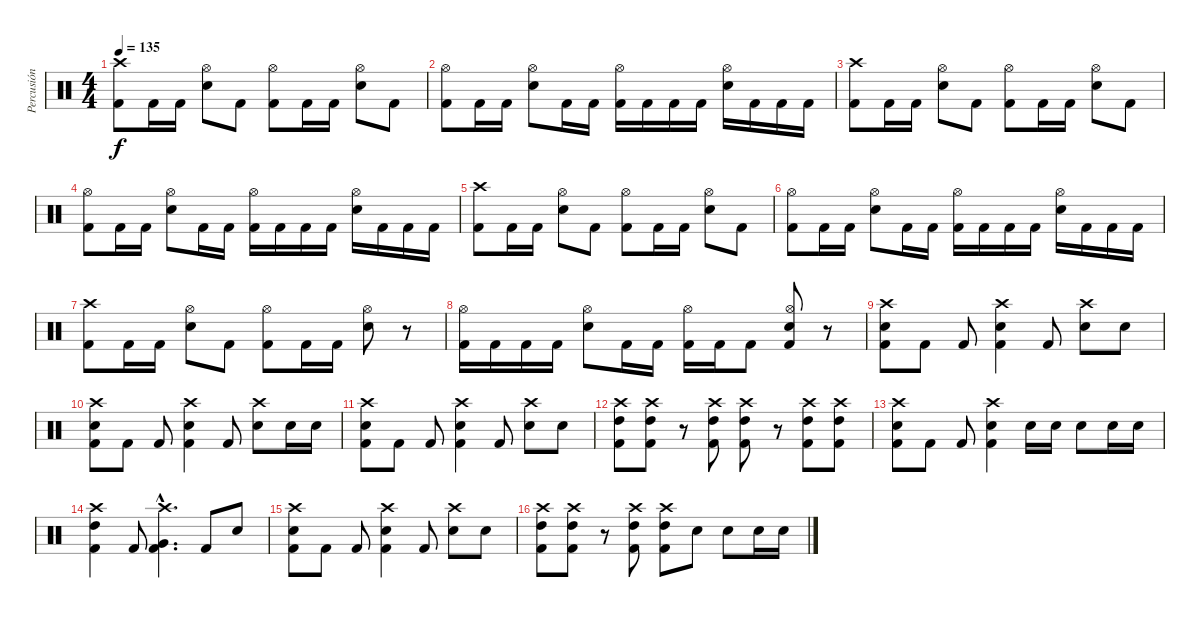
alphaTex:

\track ("Percusión" "Percusión") {instrument percussion}
\staff {score}
\articulation defaults
\ts (4 4)
\tempo 135
\clef neutral
\ks c
("Crash high (hit)" "Kick (hit) 2").8{dy f} "Kick (hit) 2".16 "Kick (hit) 2".16 ("Hi-Hat (open)" "Electric Snare (hit)").8 "Kick (hit) 2".8 ("Hi-Hat (open)" "Kick (hit) 2").8 "Kick (hit) 2".16 "Kick (hit) 2".16 ("Hi-Hat (open)" "Electric Snare (hit)").8 "Kick (hit) 2".8 |
("Hi-Hat (open)" "Kick (hit) 2").8 "Kick (hit) 2".16 "Kick (hit) 2".16 ("Hi-Hat (open)" "Electric Snare (hit)").8 "Kick (hit) 2".16 "Kick (hit) 2".16 ("Hi-Hat (open)" "Kick (hit) 2").16 "Kick (hit) 2".16 "Kick (hit) 2".16 "Kick (hit) 2".16 ("Hi-Hat (open)" "Electric Snare (hit)").16 "Kick (hit) 2".16 "Kick (hit) 2".16 "Kick (hit) 2".16 |
("Crash high (hit)" "Kick (hit) 2").8 "Kick (hit) 2".16 "Kick (hit) 2".16 ("Hi-Hat (open)" "Electric Snare (hit)").8 "Kick (hit) 2".8 ("Hi-Hat (open)" "Kick (hit) 2").8 "Kick (hit) 2".16 "Kick (hit) 2".16 ("Hi-Hat (open)" "Electric Snare (hit)").8 "Kick (hit) 2".8 |
("Hi-Hat (open)" "Kick (hit) 2").8 "Kick (hit) 2".16 "Kick (hit) 2".16 ("Hi-Hat (open)" "Electric Snare (hit)").8 "Kick (hit) 2".16 "Kick (hit) 2".16 ("Hi-Hat (open)" "Kick (hit) 2").16 "Kick (hit) 2".16 "Kick (hit) 2".16 "Kick (hit) 2".16 ("Hi-Hat (open)" "Electric Snare (hit)").16 "Kick (hit) 2".16 "Kick (hit) 2".16 "Kick (hit) 2".16 |
("Crash high (hit)" "Kick (hit) 2").8 "Kick (hit) 2".16 "Kick (hit) 2".16 ("Hi-Hat (open)" "Electric Snare (hit)").8 "Kick (hit) 2".8 ("Hi-Hat (open)" "Kick (hit) 2").8 "Kick (hit) 2".16 "Kick (hit) 2".16 ("Hi-Hat (open)" "Electric Snare (hit)").8 "Kick (hit) 2".8 |
("Hi-Hat (open)" "Kick (hit) 2").8 "Kick (hit) 2".16 "Kick (hit) 2".16 ("Hi-Hat (open)" "Electric Snare (hit)").8 "Kick (hit) 2".16 "Kick (hit) 2".16 ("Hi-Hat (open)" "Kick (hit) 2").16 "Kick (hit) 2".16 "Kick (hit) 2".16 "Kick (hit) 2".16 ("Hi-Hat (open)" "Electric Snare (hit)").16 "Kick (hit) 2".16 "Kick (hit) 2".16 "Kick (hit) 2".16 |
("Crash high (hit)" "Kick (hit) 2").8 "Kick (hit) 2".16 "Kick (hit) 2".16 ("Hi-Hat (open)" "Electric Snare (hit)").8 "Kick (hit) 2".8 ("Hi-Hat (open)" "Kick (hit) 2").8 "Kick (hit) 2".16 "Kick (hit) 2".16 ("Hi-Hat (open)" "Electric Snare (hit)").8 r.8 |
("Hi-Hat (open)" "Kick (hit) 2").16 "Kick (hit) 2".16 "Kick (hit) 2".16 "Kick (hit) 2".16 ("Hi-Hat (open)" "Electric Snare (hit)").8 "Kick (hit) 2".16 "Kick (hit) 2".16 ("Hi-Hat (open)" "Kick (hit) 2").16 "Kick (hit) 2".16 "Kick (hit) 2".8 ("Hi-Hat (open)" "Electric Snare (hit)" "Kick (hit) 2").8 r.8 |
("Crash high (hit)" "Electric Snare (hit)" "Kick (hit) 2").8 "Kick (hit) 2".8 "Kick (hit) 2".8 ("Crash high (hit)" "Electric Snare (hit)" "Kick (hit) 2").4 "Kick (hit) 2".8 ("Crash high (hit)" "Electric Snare (hit)").8 "Electric Snare (hit)".8 |
("Crash high (hit)" "Electric Snare (hit)" "Kick (hit) 2").8 "Kick (hit) 2".8 "Kick (hit) 2".8 ("Crash high (hit)" "Electric Snare (hit)" "Kick (hit) 2").4 "Kick (hit) 2".8 ("Crash high (hit)" "Electric Snare (hit)").8 "Electric Snare (hit)".16 "Electric Snare (hit)".16 |
("Crash high (hit)" "Electric Snare (hit)" "Kick (hit) 2").8 "Kick (hit) 2".8 "Kick (hit) 2".8 ("Crash high (hit)" "Electric Snare (hit)" "Kick (hit) 2").4 "Kick (hit) 2".8 ("Crash high (hit)" "Electric Snare (hit)").8 "Electric Snare (hit)".8 |
("Crash high (hit)" "High Tom (hit)" "Kick (hit) 2").8 ("Crash high (hit)" "High Tom (hit)" "Kick (hit) 2").8 r.8 ("Crash high (hit)" "High Tom (hit)" "Kick (hit) 2").8 ("Crash high (hit)" "High Tom (hit)" "Kick (hit) 2").8 r.8 ("Crash high (hit)" "High Tom (hit)" "Kick (hit) 2").8 ("Crash high (hit)" "High Tom (hit)" "Kick (hit) 2").8 |
("Crash high (hit)" "Electric Snare (hit)" "Kick (hit) 2").8 "Kick (hit) 2".8 "Kick (hit) 2".8 ("Crash high (hit)" "Electric Snare (hit)" "Kick (hit) 2").4 "Electric Snare (hit)".16 "Electric Snare (hit)".16 "Electric Snare (hit)".8 "Electric Snare (hit)".16 "Electric Snare (hit)".16 |
("Crash high (hit)" "High Tom (hit)" "Kick (hit) 2").4 "Kick (hit) 2".8 ("Crash high (hit)"{hac} "Very Low Tom (hit)"{hac} "Kick (hit) 2"{hac}).4{d} "Kick (hit) 2".8 "Electric Snare (hit)".8 |
("Crash high (hit)" "Electric Snare (hit)" "Kick (hit) 2").8 "Kick (hit) 2".8 "Kick (hit) 2".8 ("Crash high (hit)" "Electric Snare (hit)" "Kick (hit) 2").4 "Kick (hit) 2".8 ("Crash high (hit)" "Electric Snare (hit)").8 "Electric Snare (hit)".8 |
("Crash high (hit)" "High Tom (hit)" "Kick (hit) 2").8 ("Crash high (hit)" "High Tom (hit)" "Kick (hit) 2").8 r.8 ("Crash high (hit)" "High Tom (hit)" "Kick (hit) 2").8 ("Crash high (hit)" "High Tom (hit)" "Kick (hit) 2").8 "Electric Snare (hit)".8 "Electric Snare (hit)".8 "Electric Snare (hit)".16 "Electric Snare (hit)".16
